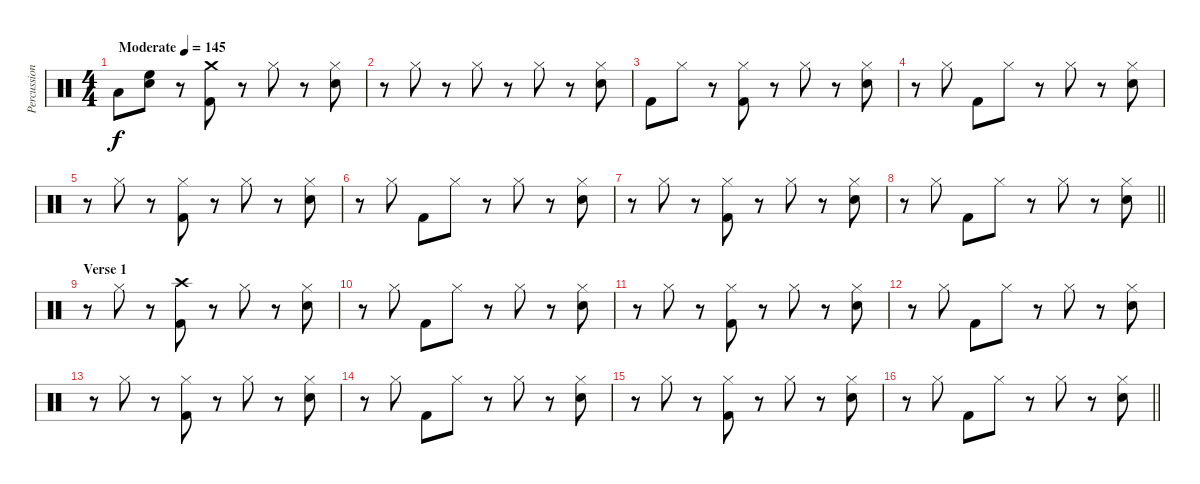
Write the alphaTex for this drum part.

\track ("Percussion" "Percussion") {instrument percussion}
\staff {score}
\articulation defaults
\ts (4 4)
\tempo (145 "Moderate")
\clef neutral
\ks c "Low Tom (hit)".8{dy f}
("High Floor Tom (hit)" "Electric Snare (hit)").8 r.8 ("Crash medium (hit)" "Kick (hit) 2").8 r.8 "Hi-Hat (closed)".8 r.8 ("Hi-Hat (closed)" "Electric Snare (hit)").8 |
r.8 "Hi-Hat (closed)".8 r.8 "Hi-Hat (closed)".8 r.8 "Hi-Hat (closed)".8 r.8 ("Hi-Hat (closed)" "Electric Snare (hit)").8 |
"Kick (hit) 2".8 "Hi-Hat (closed)".8 r.8 ("Hi-Hat (closed)" "Kick (hit) 2").8 r.8 "Hi-Hat (closed)".8 r.8 ("Hi-Hat (closed)" "Electric Snare (hit)").8 |
r.8 "Hi-Hat (closed)".8 "Kick (hit) 2".8 "Hi-Hat (closed)".8 r.8 "Hi-Hat (closed)".8 r.8 ("Hi-Hat (closed)" "Electric Snare (hit)").8 |
r.8 "Hi-Hat (closed)".8 r.8 ("Hi-Hat (closed)" "Kick (hit) 2").8 r.8 "Hi-Hat (closed)".8 r.8 ("Hi-Hat (closed)" "Electric Snare (hit)").8 |
r.8 "Hi-Hat (closed)".8 "Kick (hit) 2".8 "Hi-Hat (closed)".8 r.8 "Hi-Hat (closed)".8 r.8 ("Hi-Hat (closed)" "Electric Snare (hit)").8 |
r.8 "Hi-Hat (closed)".8 r.8 ("Hi-Hat (closed)" "Kick (hit) 2").8 r.8 "Hi-Hat (closed)".8 r.8 ("Hi-Hat (closed)" "Electric Snare (hit)").8 |
\barLineRight lightlight
r.8 "Hi-Hat (closed)".8 "Kick (hit) 2".8 "Hi-Hat (closed)".8 r.8 "Hi-Hat (closed)".8 r.8 ("Hi-Hat (closed)" "Electric Snare (hit)").8 |
\section ("" "Verse 1")
r.8 "Hi-Hat (closed)".8 r.8 ("Crash high (hit)" "Kick (hit) 2").8 r.8 "Hi-Hat (closed)".8 r.8 ("Hi-Hat (closed)" "Electric Snare (hit)").8 |
r.8 "Hi-Hat (closed)".8 "Kick (hit) 2".8 "Hi-Hat (closed)".8 r.8 "Hi-Hat (closed)".8 r.8 ("Hi-Hat (closed)" "Electric Snare (hit)").8 |
r.8 "Hi-Hat (closed)".8 r.8 ("Hi-Hat (closed)" "Kick (hit) 2").8 r.8 "Hi-Hat (closed)".8 r.8 ("Hi-Hat (closed)" "Electric Snare (hit)").8 |
r.8 "Hi-Hat (closed)".8 "Kick (hit) 2".8 "Hi-Hat (closed)".8 r.8 "Hi-Hat (closed)".8 r.8 ("Hi-Hat (closed)" "Electric Snare (hit)").8 |
r.8 "Hi-Hat (closed)".8 r.8 ("Hi-Hat (closed)" "Kick (hit) 2").8 r.8 "Hi-Hat (closed)".8 r.8 ("Hi-Hat (closed)" "Electric Snare (hit)").8 |
r.8 "Hi-Hat (closed)".8 "Kick (hit) 2".8 "Hi-Hat (closed)".8 r.8 "Hi-Hat (closed)".8 r.8 ("Hi-Hat (closed)" "Electric Snare (hit)").8 |
r.8 "Hi-Hat (closed)".8 r.8 ("Hi-Hat (closed)" "Kick (hit) 2").8 r.8 "Hi-Hat (closed)".8 r.8 ("Hi-Hat (closed)" "Electric Snare (hit)").8 |
\barLineRight lightlight
r.8 "Hi-Hat (closed)".8 "Kick (hit) 2".8 "Hi-Hat (closed)".8 r.8 "Hi-Hat (closed)".8 r.8 ("Hi-Hat (closed)" "Electric Snare (hit)").8
